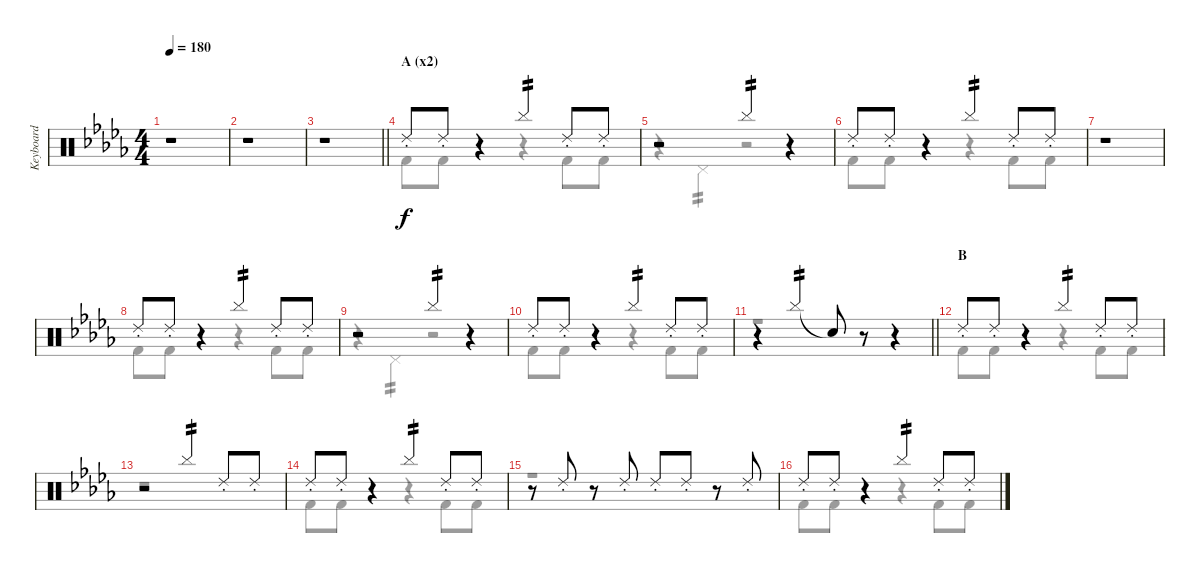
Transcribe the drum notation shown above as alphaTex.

\track ("Keyboard" "Keyboard") {instrument percussion}
\staff {score}
\articulation defaults
\voice
\ts (4 4)
\tempo 180
\clef neutral
\ks db
r.1{dy f} |
r.1 |
\barLineRight lightlight
r.1 |
\section ("" "A (x2)")
"Ride (choke) 2".8 "Ride (choke) 2".8 r.4 "Cymbal (hit)".4{tp 2} "Ride (choke) 2".8 "Ride (choke) 2".8 |
r.2 "Cymbal (hit)".4{tp 2} r.4 |
"Ride (choke) 2".8 "Ride (choke) 2".8 r.4 "Cymbal (hit)".4{tp 2} "Ride (choke) 2".8 "Ride (choke) 2".8 |
r.1 |
"Ride (choke) 2".8 "Ride (choke) 2".8 r.4 "Cymbal (hit)".4{tp 2} "Ride (choke) 2".8 "Ride (choke) 2".8 |
r.2 "Cymbal (hit)".4{tp 2} r.4 |
"Ride (choke) 2".8 "Ride (choke) 2".8 r.4 "Cymbal (hit)".4{tp 2} "Ride (choke) 2".8 "Ride (choke) 2".8 |
\barLineRight lightlight
r.4 "Cymbal (hit)".4{tp 2} "Snare (hit)"{t}.8 r.8 r.4 |
\section ("" "B")
"Ride (choke) 2".8 "Ride (choke) 2".8 r.4 "Cymbal (hit)".4{tp 2} "Ride (choke) 2".8 "Ride (choke) 2".8 |
r.2 "Cymbal (hit)".4{tp 2} "Ride (choke) 2".8 "Ride (choke) 2".8 |
"Ride (choke) 2".8 "Ride (choke) 2".8 r.4 "Cymbal (hit)".4{tp 2} "Ride (choke) 2".8 "Ride (choke) 2".8 |
r.8 "Ride (choke) 2".8 r.8 "Ride (choke) 2".8 "Ride (choke) 2".8 "Ride (choke) 2".8 r.8 "Ride (choke) 2".8 |
"Ride (choke) 2".8 "Ride (choke) 2".8 r.4 "Cymbal (hit)".4{tp 2} "Ride (choke) 2".8 "Ride (choke) 2".8
\voice
\clef neutral
\ottava regular
\simile none
\ks db
|
|
\barLineRight lightlight
|
"Kick (hit) 2".8 "Kick (hit) 2".8 r.4 r.4 "Kick (hit) 2".8 "Kick (hit) 2".8 |
r.4 "Pedal Hi-Hat (hit)".4{tp 2} r.2 |
"Kick (hit) 2".8 "Kick (hit) 2".8 r.4 r.4 "Kick (hit) 2".8 "Kick (hit) 2".8 |
|
"Kick (hit) 2".8 "Kick (hit) 2".8 r.4 r.4 "Kick (hit) 2".8 "Kick (hit) 2".8 |
r.4 "Pedal Hi-Hat (hit)".4{tp 2} r.2 |
"Kick (hit) 2".8 "Kick (hit) 2".8 r.4 r.4 "Kick (hit) 2".8 "Kick (hit) 2".8 |
\barLineRight lightlight
r.1 |
"Kick (hit) 2".8 "Kick (hit) 2".8 r.4 r.4 "Kick (hit) 2".8 "Kick (hit) 2".8 |
r.1 |
"Kick (hit) 2".8 "Kick (hit) 2".8 r.4 r.4 "Kick (hit) 2".8 "Kick (hit) 2".8 |
r.1 |
"Kick (hit) 2".8 "Kick (hit) 2".8 r.4 r.4 "Kick (hit) 2".8 "Kick (hit) 2".8
